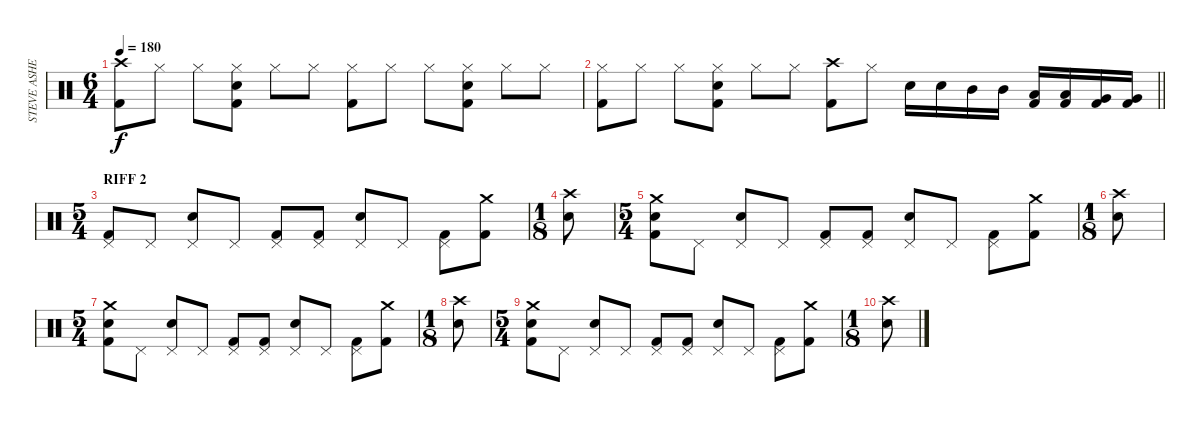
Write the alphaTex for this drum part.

\track ("STEVE ASHEIM" "STEVE ASHE") {instrument percussion}
\staff {score}
\articulation defaults
\ts (6 4)
\tempo 180
\clef neutral
\ks c
("Crash high (hit)" "Kick (hit) 2").8{dy f} "Hi-Hat (closed)".8 "Hi-Hat (closed)".8 ("Hi-Hat (closed)" "Snare (hit) 2" "Kick (hit) 2").8 "Hi-Hat (closed)".8 "Hi-Hat (closed)".8 ("Hi-Hat (closed)" "Kick (hit) 2").8 "Hi-Hat (closed)".8 "Hi-Hat (closed)".8 ("Hi-Hat (closed)" "Snare (hit) 2" "Kick (hit) 2").8 "Hi-Hat (closed)".8 "Hi-Hat (closed)".8 |
\barLineRight lightlight
("Hi-Hat (closed)" "Kick (hit) 2").8 "Hi-Hat (closed)".8 "Hi-Hat (closed)".8 ("Hi-Hat (closed)" "Snare (hit) 2" "Kick (hit) 2").8 "Hi-Hat (closed)".8 "Hi-Hat (closed)".8 ("Crash high (hit)" "Kick (hit) 2").8 "Hi-Hat (closed)".8 "Snare (hit) 2".16 "Snare (hit) 2".16 "Mid Tom (hit)".16 "Mid Tom (hit)".16 ("Low Tom (hit)" "Kick (hit) 2").16 ("Low Tom (hit)" "Kick (hit) 2").16 ("Very Low Tom (hit)" "Kick (hit) 2").16 ("Very Low Tom (hit)" "Kick (hit) 2").16 |
\ts (5 4)
\section ("" "RIFF 2")
("Pedal Hi-Hat (hit)" "Kick (hit) 2").8 "Pedal Hi-Hat (hit)".8 ("Pedal Hi-Hat (hit)" "Snare (hit) 2").8 "Pedal Hi-Hat (hit)".8 ("Pedal Hi-Hat (hit)" "Kick (hit) 2").8 ("Pedal Hi-Hat (hit)" "Kick (hit) 2").8 ("Pedal Hi-Hat (hit)" "Snare (hit) 2").8 "Pedal Hi-Hat (hit)".8 ("Pedal Hi-Hat (hit)" "Kick (hit) 2").8 ("Crash medium (hit)" "Kick (hit) 2").8 |
\ts (1 8)
("Crash high (hit)" "Snare (hit) 2").8 |
\ts (5 4)
("Crash medium (hit)" "Snare (hit) 2" "Kick (hit) 2").8 "Pedal Hi-Hat (hit)".8 ("Pedal Hi-Hat (hit)" "Snare (hit) 2").8 "Pedal Hi-Hat (hit)".8 ("Pedal Hi-Hat (hit)" "Kick (hit) 2").8 ("Pedal Hi-Hat (hit)" "Kick (hit) 2").8 ("Pedal Hi-Hat (hit)" "Snare (hit) 2").8 "Pedal Hi-Hat (hit)".8 ("Pedal Hi-Hat (hit)" "Kick (hit) 2").8 ("Crash medium (hit)" "Kick (hit) 2").8 |
\ts (1 8)
("Crash high (hit)" "Snare (hit) 2").8 |
\ts (5 4)
("Crash medium (hit)" "Snare (hit) 2" "Kick (hit) 2").8 "Pedal Hi-Hat (hit)".8 ("Pedal Hi-Hat (hit)" "Snare (hit) 2").8 "Pedal Hi-Hat (hit)".8 ("Pedal Hi-Hat (hit)" "Kick (hit) 2").8 ("Pedal Hi-Hat (hit)" "Kick (hit) 2").8 ("Pedal Hi-Hat (hit)" "Snare (hit) 2").8 "Pedal Hi-Hat (hit)".8 ("Pedal Hi-Hat (hit)" "Kick (hit) 2").8 ("Crash medium (hit)" "Kick (hit) 2").8 |
\ts (1 8)
("Crash high (hit)" "Snare (hit) 2").8 |
\ts (5 4)
("Crash medium (hit)" "Snare (hit) 2" "Kick (hit) 2").8 "Pedal Hi-Hat (hit)".8 ("Pedal Hi-Hat (hit)" "Snare (hit) 2").8 "Pedal Hi-Hat (hit)".8 ("Pedal Hi-Hat (hit)" "Kick (hit) 2").8 ("Pedal Hi-Hat (hit)" "Kick (hit) 2").8 ("Pedal Hi-Hat (hit)" "Snare (hit) 2").8 "Pedal Hi-Hat (hit)".8 ("Pedal Hi-Hat (hit)" "Kick (hit) 2").8 ("Crash medium (hit)" "Kick (hit) 2").8 |
\ts (1 8)
("Crash high (hit)" "Snare (hit) 2").8
